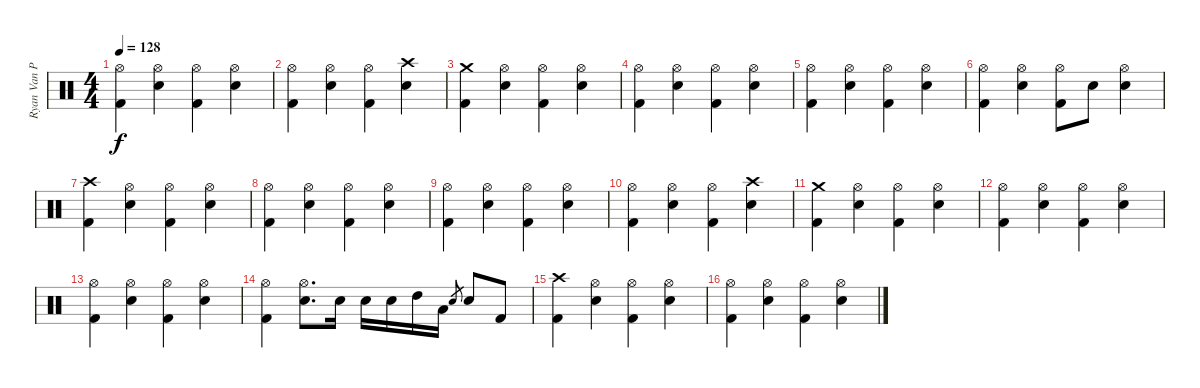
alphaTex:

\track ("Ryan Van Poederooyen" "Ryan Van P") {instrument percussion}
\staff {score}
\articulation defaults
\ts (4 4)
\tempo 128
\clef neutral
\ks c
("Hi-Hat (open)" "Kick (hit) 2").4{dy f} ("Hi-Hat (open)" "Electric Snare (hit)").4 ("Hi-Hat (open)" "Kick (hit) 2").4 ("Hi-Hat (open)" "Electric Snare (hit)").4 |
("Hi-Hat (open)" "Kick (hit) 2").4 ("Hi-Hat (open)" "Electric Snare (hit)").4 ("Hi-Hat (open)" "Kick (hit) 2").4 ("Crash high (hit)" "Electric Snare (hit)").4 |
("Crash medium (hit)" "Kick (hit) 2").4 ("Hi-Hat (open)" "Electric Snare (hit)").4 ("Hi-Hat (open)" "Kick (hit) 2").4 ("Hi-Hat (open)" "Electric Snare (hit)").4 |
("Hi-Hat (open)" "Kick (hit) 2").4 ("Hi-Hat (open)" "Electric Snare (hit)").4 ("Hi-Hat (open)" "Kick (hit) 2").4 ("Hi-Hat (open)" "Electric Snare (hit)").4 |
("Hi-Hat (open)" "Kick (hit) 2").4 ("Hi-Hat (open)" "Electric Snare (hit)").4 ("Hi-Hat (open)" "Kick (hit) 2").4 ("Hi-Hat (open)" "Electric Snare (hit)").4 |
("Hi-Hat (open)" "Kick (hit) 2").4 ("Hi-Hat (open)" "Electric Snare (hit)").4 ("Hi-Hat (open)" "Kick (hit) 2").8 "Electric Snare (hit)".8 ("Hi-Hat (open)" "Electric Snare (hit)").4 |
("Crash high (hit)" "Kick (hit) 2").4 ("Hi-Hat (open)" "Electric Snare (hit)").4 ("Hi-Hat (open)" "Kick (hit) 2").4 ("Hi-Hat (open)" "Electric Snare (hit)").4 |
("Hi-Hat (open)" "Kick (hit) 2").4 ("Hi-Hat (open)" "Electric Snare (hit)").4 ("Hi-Hat (open)" "Kick (hit) 2").4 ("Hi-Hat (open)" "Electric Snare (hit)").4 |
("Hi-Hat (open)" "Kick (hit) 2").4 ("Hi-Hat (open)" "Electric Snare (hit)").4 ("Hi-Hat (open)" "Kick (hit) 2").4 ("Hi-Hat (open)" "Electric Snare (hit)").4 |
("Hi-Hat (open)" "Kick (hit) 2").4 ("Hi-Hat (open)" "Electric Snare (hit)").4 ("Hi-Hat (open)" "Kick (hit) 2").4 ("Crash high (hit)" "Electric Snare (hit)").4 |
("Crash medium (hit)" "Kick (hit) 2").4 ("Hi-Hat (open)" "Electric Snare (hit)").4 ("Hi-Hat (open)" "Kick (hit) 2").4 ("Hi-Hat (open)" "Electric Snare (hit)").4 |
("Hi-Hat (open)" "Kick (hit) 2").4 ("Hi-Hat (open)" "Electric Snare (hit)").4 ("Hi-Hat (open)" "Kick (hit) 2").4 ("Hi-Hat (open)" "Electric Snare (hit)").4 |
("Hi-Hat (open)" "Kick (hit) 2").4 ("Hi-Hat (open)" "Electric Snare (hit)").4 ("Hi-Hat (open)" "Kick (hit) 2").4 ("Hi-Hat (open)" "Electric Snare (hit)").4 |
("Hi-Hat (open)" "Kick (hit) 2").4 ("Hi-Hat (open)" "Electric Snare (hit)").8{d} "Electric Snare (hit)".16 "Electric Snare (hit)".16 "Electric Snare (hit)".16 "High Tom (hit)".16 "Low Tom (hit)".16 "Electric Snare (hit)".8{gr} "Electric Snare (hit)".8 "Kick (hit) 2".8 |
("Crash high (hit)" "Kick (hit) 2").4 ("Hi-Hat (open)" "Electric Snare (hit)").4 ("Hi-Hat (open)" "Kick (hit) 2").4 ("Hi-Hat (open)" "Electric Snare (hit)").4 |
("Hi-Hat (open)" "Kick (hit) 2").4 ("Hi-Hat (open)" "Electric Snare (hit)").4 ("Hi-Hat (open)" "Kick (hit) 2").4 ("Hi-Hat (open)" "Electric Snare (hit)").4
